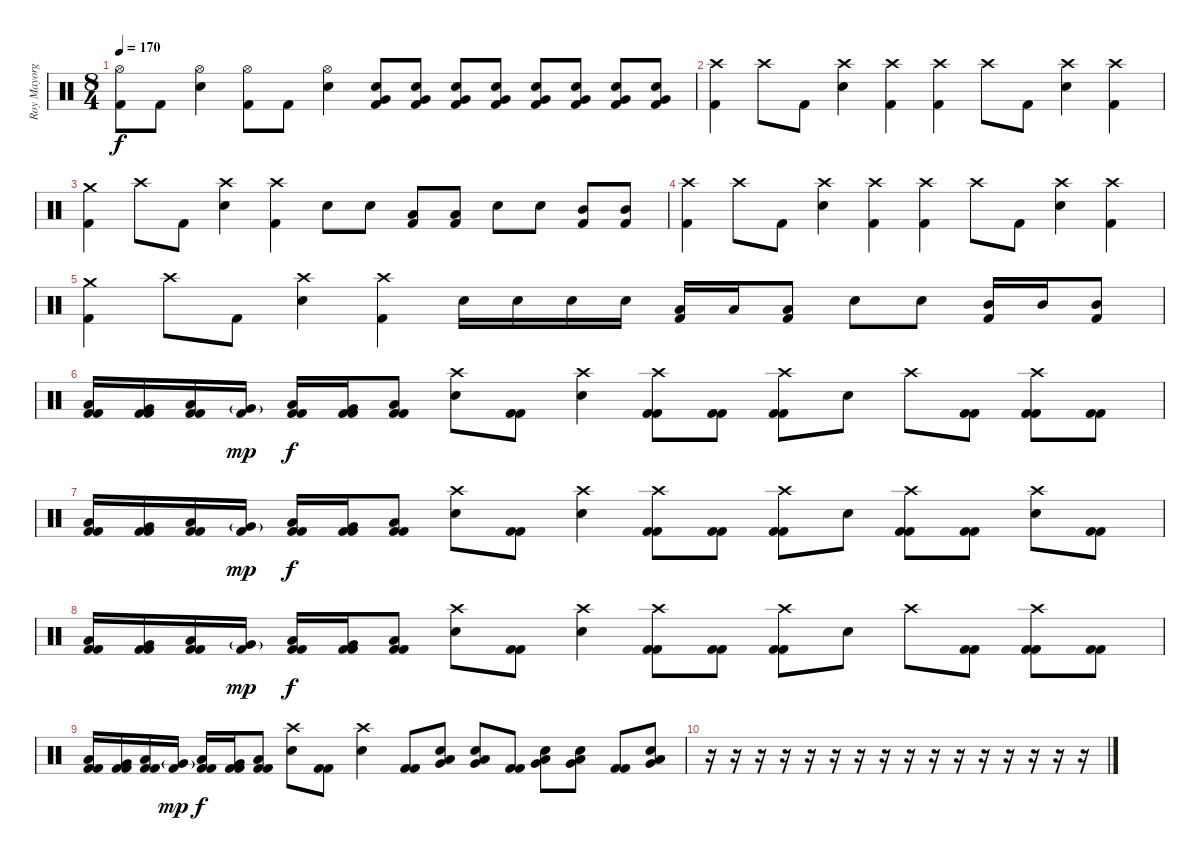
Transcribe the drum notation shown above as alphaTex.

\track ("Roy Mayorga" "Roy Mayorg") {instrument percussion}
\staff {score}
\articulation defaults
\ts (8 4)
\tempo 170
\clef neutral
\ks c
("Hi-Hat (open)" "Kick (hit) 2").8{dy f} "Kick (hit) 2".8 ("Hi-Hat (open)" "Electric Snare (hit)").4 ("Hi-Hat (open)" "Kick (hit) 2").8 "Kick (hit) 2".8 ("Hi-Hat (open)" "Electric Snare (hit)").4 ("Electric Snare (hit)" "Very Low Tom (hit)" "Kick (hit) 2").8 ("Electric Snare (hit)" "Very Low Tom (hit)" "Kick (hit) 2").8 ("Electric Snare (hit)" "Very Low Tom (hit)" "Kick (hit) 2").8 ("Electric Snare (hit)" "Very Low Tom (hit)" "Kick (hit) 2").8 ("Electric Snare (hit)" "Very Low Tom (hit)" "Kick (hit) 2").8 ("Electric Snare (hit)" "Very Low Tom (hit)" "Kick (hit) 2").8 ("Electric Snare (hit)" "Very Low Tom (hit)" "Kick (hit) 2").8 ("Electric Snare (hit)" "Very Low Tom (hit)" "Kick (hit) 2").8 |
("Crash high (hit)" "Kick (hit) 2").4 "Crash high (hit)".8 "Kick (hit) 2".8 ("Crash high (hit)" "Electric Snare (hit)").4 ("Crash high (hit)" "Kick (hit) 2").4 ("Crash high (hit)" "Kick (hit) 2").4 "Crash high (hit)".8 "Kick (hit) 2".8 ("Crash high (hit)" "Electric Snare (hit)").4 ("Crash high (hit)" "Kick (hit) 2").4 |
("Crash medium (hit)" "Kick (hit) 2").4 "Crash high (hit)".8 "Kick (hit) 2".8 ("Crash high (hit)" "Electric Snare (hit)").4 ("Crash high (hit)" "Kick (hit) 2").4 "Electric Snare (hit)".8 "Electric Snare (hit)".8 ("Low Tom (hit)" "Kick (hit) 2").8 ("Low Tom (hit)" "Kick (hit) 2").8 "Electric Snare (hit)".8 "Electric Snare (hit)".8 ("Mid Tom (hit)" "Kick (hit) 2").8 ("Mid Tom (hit)" "Kick (hit) 2").8 |
("Crash high (hit)" "Kick (hit) 2").4 "Crash high (hit)".8 "Kick (hit) 2".8 ("Crash high (hit)" "Electric Snare (hit)").4 ("Crash high (hit)" "Kick (hit) 2").4 ("Crash high (hit)" "Kick (hit) 2").4 "Crash high (hit)".8 "Kick (hit) 2".8 ("Crash high (hit)" "Electric Snare (hit)").4 ("Crash high (hit)" "Kick (hit) 2").4 |
("Crash medium (hit)" "Kick (hit) 2").4 "Crash high (hit)".8 "Kick (hit) 2".8 ("Crash high (hit)" "Electric Snare (hit)").4 ("Crash high (hit)" "Kick (hit) 2").4 "Electric Snare (hit)".16 "Electric Snare (hit)".16 "Electric Snare (hit)".16 "Electric Snare (hit)".16 ("Low Tom (hit)" "Kick (hit) 2").16 "Low Tom (hit)".16 ("Low Tom (hit)" "Kick (hit) 2").8 "Electric Snare (hit)".8 "Electric Snare (hit)".8 ("Mid Tom (hit)" "Kick (hit) 2").16 "Mid Tom (hit)".16 ("Mid Tom (hit)" "Kick (hit) 2").8 |
("Low Tom (hit)" "Kick (hit) 2" "Kick (hit) 2").16 ("Very Low Tom (hit)" "Kick (hit) 2" "Kick (hit) 2").16 ("Low Tom (hit)" "Kick (hit) 2" "Kick (hit) 2").16 ("Very Low Tom (hit)"{g} "Kick (hit) 2").16{dy mp} ("Low Tom (hit)" "Kick (hit) 2" "Kick (hit) 2").16{dy f} ("Very Low Tom (hit)" "Kick (hit) 2" "Kick (hit) 2").16 ("Low Tom (hit)" "Kick (hit) 2" "Kick (hit) 2").8 ("Crash high (hit)" "Electric Snare (hit)").8 ("Kick (hit) 2" "Kick (hit) 2").8 ("Crash high (hit)" "Electric Snare (hit)").4 ("Crash high (hit)" "Kick (hit) 2" "Kick (hit) 2").8 ("Kick (hit) 2" "Kick (hit) 2").8 ("Crash high (hit)" "Kick (hit) 2" "Kick (hit) 2").8 "Electric Snare (hit)".8 "Crash high (hit)".8 ("Kick (hit) 2" "Kick (hit) 2").8 ("Crash high (hit)" "Kick (hit) 2" "Kick (hit) 2").8 ("Kick (hit) 2" "Kick (hit) 2").8 |
("Low Tom (hit)" "Kick (hit) 2" "Kick (hit) 2").16 ("Very Low Tom (hit)" "Kick (hit) 2" "Kick (hit) 2").16 ("Low Tom (hit)" "Kick (hit) 2" "Kick (hit) 2").16 ("Very Low Tom (hit)"{g} "Kick (hit) 2").16{dy mp} ("Low Tom (hit)" "Kick (hit) 2" "Kick (hit) 2").16{dy f} ("Very Low Tom (hit)" "Kick (hit) 2" "Kick (hit) 2").16 ("Low Tom (hit)" "Kick (hit) 2" "Kick (hit) 2").8 ("Crash high (hit)" "Electric Snare (hit)").8 ("Kick (hit) 2" "Kick (hit) 2").8 ("Crash high (hit)" "Electric Snare (hit)").4 ("Crash high (hit)" "Kick (hit) 2" "Kick (hit) 2").8 ("Kick (hit) 2" "Kick (hit) 2").8 ("Crash high (hit)" "Kick (hit) 2" "Kick (hit) 2").8 "Electric Snare (hit)".8 ("Crash high (hit)" "Kick (hit) 2" "Kick (hit) 2").8 ("Kick (hit) 2" "Kick (hit) 2").8 ("Crash high (hit)" "Electric Snare (hit)").8 ("Kick (hit) 2" "Kick (hit) 2").8 |
("Low Tom (hit)" "Kick (hit) 2" "Kick (hit) 2").16 ("Very Low Tom (hit)" "Kick (hit) 2" "Kick (hit) 2").16 ("Low Tom (hit)" "Kick (hit) 2" "Kick (hit) 2").16 ("Very Low Tom (hit)"{g} "Kick (hit) 2").16{dy mp} ("Low Tom (hit)" "Kick (hit) 2" "Kick (hit) 2").16{dy f} ("Very Low Tom (hit)" "Kick (hit) 2" "Kick (hit) 2").16 ("Low Tom (hit)" "Kick (hit) 2" "Kick (hit) 2").8 ("Crash high (hit)" "Electric Snare (hit)").8 ("Kick (hit) 2" "Kick (hit) 2").8 ("Crash high (hit)" "Electric Snare (hit)").4 ("Crash high (hit)" "Kick (hit) 2" "Kick (hit) 2").8 ("Kick (hit) 2" "Kick (hit) 2").8 ("Crash high (hit)" "Kick (hit) 2" "Kick (hit) 2").8 "Electric Snare (hit)".8 "Crash high (hit)".8 ("Kick (hit) 2" "Kick (hit) 2").8 ("Crash high (hit)" "Kick (hit) 2" "Kick (hit) 2").8 ("Kick (hit) 2" "Kick (hit) 2").8 |
("Low Tom (hit)" "Kick (hit) 2" "Kick (hit) 2").16 ("Very Low Tom (hit)" "Kick (hit) 2" "Kick (hit) 2").16 ("Low Tom (hit)" "Kick (hit) 2" "Kick (hit) 2").16 ("Very Low Tom (hit)"{g} "Kick (hit) 2").16{dy mp} ("Low Tom (hit)" "Kick (hit) 2" "Kick (hit) 2").16{dy f} ("Very Low Tom (hit)" "Kick (hit) 2" "Kick (hit) 2").16 ("Low Tom (hit)" "Kick (hit) 2" "Kick (hit) 2").8 ("Crash high (hit)" "Electric Snare (hit)").8 ("Kick (hit) 2" "Kick (hit) 2").8 ("Crash high (hit)" "Electric Snare (hit)").4 ("Kick (hit) 2" "Kick (hit) 2").8 ("Electric Snare (hit)" "Very Low Tom (hit)" "Low Floor Tom (hit)").8 ("Electric Snare (hit)" "Very Low Tom (hit)" "Low Floor Tom (hit)").8 ("Kick (hit) 2" "Kick (hit) 2").8 ("Electric Snare (hit)" "Very Low Tom (hit)" "Low Floor Tom (hit)").8 ("Electric Snare (hit)" "Very Low Tom (hit)" "Low Floor Tom (hit)").8 ("Kick (hit) 2" "Kick (hit) 2").8 ("Electric Snare (hit)" "Very Low Tom (hit)" "Low Floor Tom (hit)").8 |
r.16 r.16 r.16 r.16 r.16 r.16 r.16 r.16 r.16 r.16 r.16 r.16 r.16 r.16 r.16 r.16
